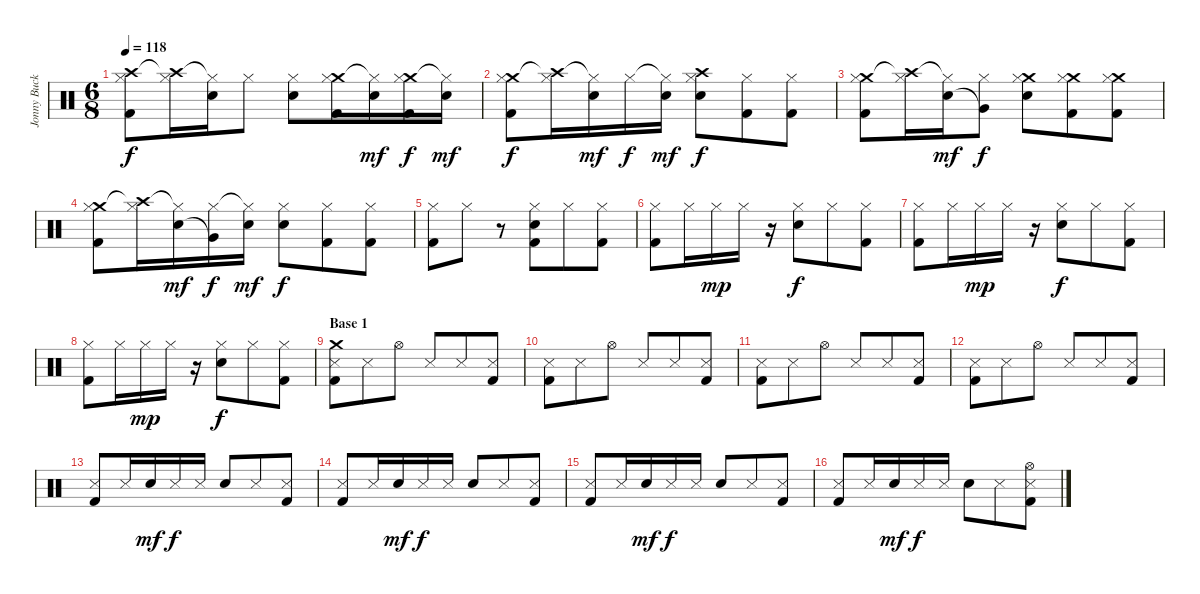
\track ("Jonny Buckland (batera)" "Jonny Buck") {instrument percussion}
\staff {score}
\articulation defaults
\ts (6 8)
\tempo 118
\clef neutral
\ks c
("Crash high (hit)" "Hi-Hat (closed)" "Kick (hit) 2").8{dy f} ("Crash high (hit)"{t} "Hi-Hat (closed)").16 ("Hi-Hat (closed)"{t} "Electric Snare (hit)").16 "Hi-Hat (closed)".8 ("Hi-Hat (closed)" "Electric Snare (hit)").8 ("Crash medium (hit)" "Hi-Hat (closed)" "Kick (hit) 2").16 ("Hi-Hat (closed)"{t} "Snare (hit) 2").16{dy mf} ("Crash medium (hit)" "Hi-Hat (closed)" "Kick (hit) 2").16{dy f} ("Hi-Hat (closed)"{t} "Snare (hit) 2").16{dy mf} |
("Crash medium (hit)" "Hi-Hat (closed)" "Kick (hit) 2").8{dy f} ("Crash high (hit)"{t} "Hi-Hat (closed)").16 ("Hi-Hat (closed)"{t} "Snare (hit) 2").16{dy mf} "Hi-Hat (closed)".16{dy f} ("Hi-Hat (closed)"{t} "Snare (hit) 2").16{dy mf} ("Crash high (hit)" "Hi-Hat (closed)" "Electric Snare (hit)").8{dy f} ("Hi-Hat (closed)" "Kick (hit) 2").8 ("Hi-Hat (closed)" "Kick (hit) 2").8 |
("Crash medium (hit)" "Hi-Hat (closed)" "Kick (hit) 2").8 ("Crash high (hit)"{t} "Hi-Hat (closed)").16 ("Hi-Hat (closed)"{t} "Snare (hit) 2").16{dy mf} ("Hi-Hat (closed)" "Very Low Tom (hit)"{t}).8{dy f} ("Crash medium (hit)" "Hi-Hat (closed)" "Electric Snare (hit)").8 ("Crash medium (hit)" "Hi-Hat (closed)" "Kick (hit) 2").8 ("Crash medium (hit)" "Hi-Hat (closed)" "Kick (hit) 2").8 |
("Crash medium (hit)" "Hi-Hat (closed)" "Kick (hit) 2").8 ("Crash high (hit)"{t} "Hi-Hat (closed)").16 ("Hi-Hat (closed)"{t} "Snare (hit) 2").16{dy mf} ("Hi-Hat (closed)" "Very Low Tom (hit)"{t}).16{dy f} ("Hi-Hat (closed)"{t} "Snare (hit) 2").16{dy mf} ("Hi-Hat (closed)" "Electric Snare (hit)").8{dy f} ("Hi-Hat (closed)" "Kick (hit) 2").8 ("Hi-Hat (closed)" "Kick (hit) 2").8 |
("Hi-Hat (closed)" "Kick (hit) 2").8 "Hi-Hat (closed)".8 r.8 ("Hi-Hat (closed)" "Electric Snare (hit)" "Kick (hit) 2").8 "Hi-Hat (closed)".8 ("Hi-Hat (closed)" "Kick (hit) 2").8 |
("Hi-Hat (closed)" "Kick (hit) 2").8 "Hi-Hat (closed)".16 "Hi-Hat (closed)".16{dy mp} "Hi-Hat (closed)".16 r.16 ("Hi-Hat (closed)" "Electric Snare (hit)").8{dy f} "Hi-Hat (closed)".8 ("Hi-Hat (closed)" "Kick (hit) 2").8 |
("Hi-Hat (closed)" "Kick (hit) 2").8 "Hi-Hat (closed)".16 "Hi-Hat (closed)".16{dy mp} "Hi-Hat (closed)".16 r.16 ("Hi-Hat (closed)" "Electric Snare (hit)").8{dy f} "Hi-Hat (closed)".8 ("Hi-Hat (closed)" "Kick (hit) 2").8 |
("Hi-Hat (closed)" "Kick (hit) 2").8 "Hi-Hat (closed)".16 "Hi-Hat (closed)".16{dy mp} "Hi-Hat (closed)".16 r.16 ("Hi-Hat (closed)" "Electric Snare (hit)").8{dy f} "Hi-Hat (closed)".8 ("Hi-Hat (closed)" "Kick (hit) 2").8 |
\section ("" "Base 1")
("Crash medium (hit)" "Snare (side stick) 3" "Kick (hit) 2").8 "Snare (side stick) 3".8 "Hi-Hat (open)".8 "Snare (side stick) 3".8 "Snare (side stick) 3".8 ("Snare (side stick) 3" "Kick (hit) 2").8 |
("Snare (side stick) 3" "Kick (hit) 2").8 "Snare (side stick) 3".8 "Hi-Hat (open)".8 "Snare (side stick) 3".8 "Snare (side stick) 3".8 ("Snare (side stick) 3" "Kick (hit) 2").8 |
("Snare (side stick) 3" "Kick (hit) 2").8 "Snare (side stick) 3".8 "Hi-Hat (open)".8 "Snare (side stick) 3".8 "Snare (side stick) 3".8 ("Snare (side stick) 3" "Kick (hit) 2").8 |
("Snare (side stick) 3" "Kick (hit) 2").8 "Snare (side stick) 3".8 "Hi-Hat (open)".8 "Snare (side stick) 3".8 "Snare (side stick) 3".8 ("Snare (side stick) 3" "Kick (hit) 2").8 |
("Snare (side stick) 3" "Kick (hit) 2").8 "Snare (side stick) 3".16 "Snare (hit) 2".16{dy mf} "Snare (side stick) 3".16{dy f} "Snare (side stick) 3".16 "Electric Snare (hit)".8 "Snare (side stick) 3".8 ("Snare (side stick) 3" "Kick (hit) 2").8 |
("Snare (side stick) 3" "Kick (hit) 2").8 "Snare (side stick) 3".16 "Snare (hit) 2".16{dy mf} "Snare (side stick) 3".16{dy f} "Snare (side stick) 3".16 "Electric Snare (hit)".8 "Snare (side stick) 3".8 ("Snare (side stick) 3" "Kick (hit) 2").8 |
("Snare (side stick) 3" "Kick (hit) 2").8 "Snare (side stick) 3".16 "Snare (hit) 2".16{dy mf} "Snare (side stick) 3".16{dy f} "Snare (side stick) 3".16 "Electric Snare (hit)".8 "Snare (side stick) 3".8 ("Snare (side stick) 3" "Kick (hit) 2").8 |
("Snare (side stick) 3" "Kick (hit) 2").8 "Snare (side stick) 3".16 "Snare (hit) 2".16{dy mf} "Snare (side stick) 3".16{dy f} "Snare (side stick) 3".16 "Electric Snare (hit)".8 "Snare (side stick) 3".8 ("Snare (side stick) 3" "Hi-Hat (open)" "Kick (hit) 2").8
